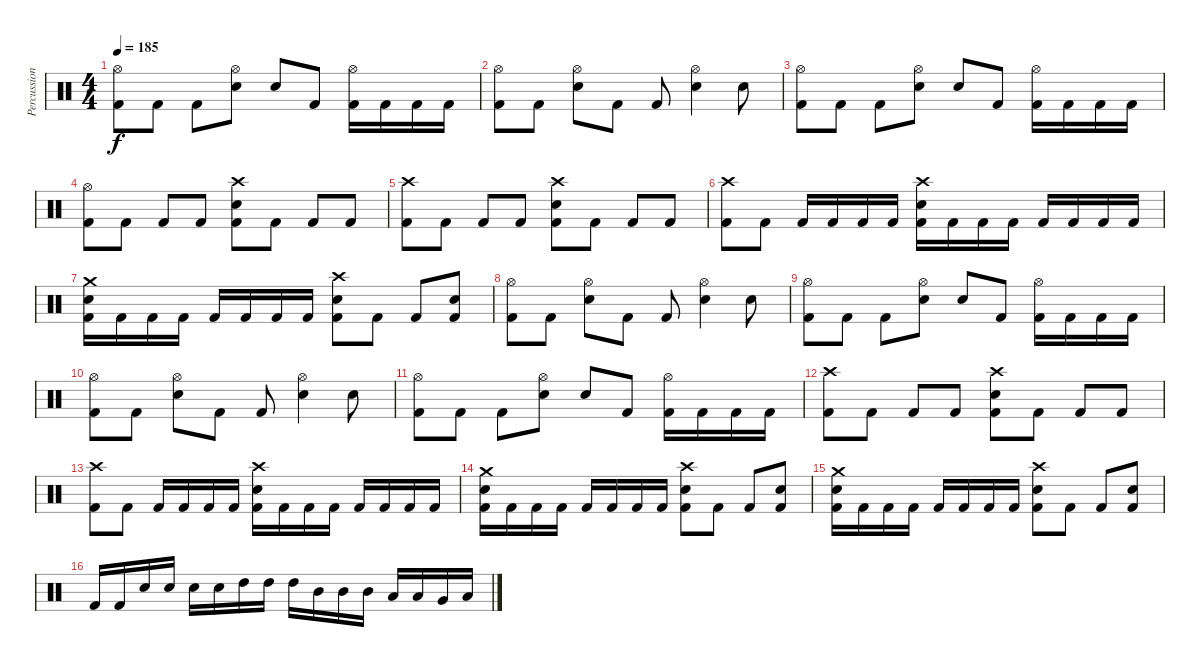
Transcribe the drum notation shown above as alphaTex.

\track ("Percussion" "Percussion") {instrument percussion}
\staff {score}
\articulation defaults
\ts (4 4)
\tempo 185
\clef neutral
\ks c
("Hi-Hat (open)" "Kick (hit) 2").8{dy f} "Kick (hit) 2".8 "Kick (hit) 2".8 ("Hi-Hat (open)" "Electric Snare (hit)").8 "Electric Snare (hit)".8 "Kick (hit) 2".8 ("Hi-Hat (open)" "Kick (hit) 2").16 "Kick (hit) 2".16 "Kick (hit) 2".16 "Kick (hit) 2".16 |
("Hi-Hat (open)" "Kick (hit) 2").8 "Kick (hit) 2".8 ("Hi-Hat (open)" "Electric Snare (hit)").8 "Kick (hit) 2".8 "Kick (hit) 2".8 ("Hi-Hat (open)" "Electric Snare (hit)").4 "Electric Snare (hit)".8 |
("Hi-Hat (open)" "Kick (hit) 2").8 "Kick (hit) 2".8 "Kick (hit) 2".8 ("Hi-Hat (open)" "Electric Snare (hit)").8 "Electric Snare (hit)".8 "Kick (hit) 2".8 ("Hi-Hat (open)" "Kick (hit) 2").16 "Kick (hit) 2".16 "Kick (hit) 2".16 "Kick (hit) 2".16 |
("Hi-Hat (open)" "Kick (hit) 2").8 "Kick (hit) 2".8 "Kick (hit) 2".8 "Kick (hit) 2".8 ("Crash high (hit)" "Electric Snare (hit)" "Kick (hit) 2").8 "Kick (hit) 2".8 "Kick (hit) 2".8 "Kick (hit) 2".8 |
("Crash high (hit)" "Kick (hit) 2").8 "Kick (hit) 2".8 "Kick (hit) 2".8 "Kick (hit) 2".8 ("Crash high (hit)" "Electric Snare (hit)" "Kick (hit) 2").8 "Kick (hit) 2".8 "Kick (hit) 2".8 "Kick (hit) 2".8 |
("Crash high (hit)" "Kick (hit) 2").8 "Kick (hit) 2".8 "Kick (hit) 2".16 "Kick (hit) 2".16 "Kick (hit) 2".16 "Kick (hit) 2".16 ("Crash high (hit)" "Electric Snare (hit)" "Kick (hit) 2").16 "Kick (hit) 2".16 "Kick (hit) 2".16 "Kick (hit) 2".16 "Kick (hit) 2".16 "Kick (hit) 2".16 "Kick (hit) 2".16 "Kick (hit) 2".16 |
("Crash medium (hit)" "Electric Snare (hit)" "Kick (hit) 2").16 "Kick (hit) 2".16 "Kick (hit) 2".16 "Kick (hit) 2".16 "Kick (hit) 2".16 "Kick (hit) 2".16 "Kick (hit) 2".16 "Kick (hit) 2".16 ("Crash high (hit)" "Electric Snare (hit)" "Kick (hit) 2").8 "Kick (hit) 2".8 "Kick (hit) 2".8 ("Electric Snare (hit)" "Kick (hit) 2").8 |
("Hi-Hat (open)" "Kick (hit) 2").8 "Kick (hit) 2".8 ("Hi-Hat (open)" "Electric Snare (hit)").8 "Kick (hit) 2".8 "Kick (hit) 2".8 ("Hi-Hat (open)" "Electric Snare (hit)").4 "Electric Snare (hit)".8 |
("Hi-Hat (open)" "Kick (hit) 2").8 "Kick (hit) 2".8 "Kick (hit) 2".8 ("Hi-Hat (open)" "Electric Snare (hit)").8 "Electric Snare (hit)".8 "Kick (hit) 2".8 ("Hi-Hat (open)" "Kick (hit) 2").16 "Kick (hit) 2".16 "Kick (hit) 2".16 "Kick (hit) 2".16 |
("Hi-Hat (open)" "Kick (hit) 2").8 "Kick (hit) 2".8 ("Hi-Hat (open)" "Electric Snare (hit)").8 "Kick (hit) 2".8 "Kick (hit) 2".8 ("Hi-Hat (open)" "Electric Snare (hit)").4 "Electric Snare (hit)".8 |
("Hi-Hat (open)" "Kick (hit) 2").8 "Kick (hit) 2".8 "Kick (hit) 2".8 ("Hi-Hat (open)" "Electric Snare (hit)").8 "Electric Snare (hit)".8 "Kick (hit) 2".8 ("Hi-Hat (open)" "Kick (hit) 2").16 "Kick (hit) 2".16 "Kick (hit) 2".16 "Kick (hit) 2".16 |
("Crash high (hit)" "Kick (hit) 2").8 "Kick (hit) 2".8 "Kick (hit) 2".8 "Kick (hit) 2".8 ("Crash high (hit)" "Electric Snare (hit)" "Kick (hit) 2").8 "Kick (hit) 2".8 "Kick (hit) 2".8 "Kick (hit) 2".8 |
("Crash high (hit)" "Kick (hit) 2").8 "Kick (hit) 2".8 "Kick (hit) 2".16 "Kick (hit) 2".16 "Kick (hit) 2".16 "Kick (hit) 2".16 ("Crash high (hit)" "Electric Snare (hit)" "Kick (hit) 2").16 "Kick (hit) 2".16 "Kick (hit) 2".16 "Kick (hit) 2".16 "Kick (hit) 2".16 "Kick (hit) 2".16 "Kick (hit) 2".16 "Kick (hit) 2".16 |
("Crash medium (hit)" "Electric Snare (hit)" "Kick (hit) 2").16 "Kick (hit) 2".16 "Kick (hit) 2".16 "Kick (hit) 2".16 "Kick (hit) 2".16 "Kick (hit) 2".16 "Kick (hit) 2".16 "Kick (hit) 2".16 ("Crash high (hit)" "Electric Snare (hit)" "Kick (hit) 2").8 "Kick (hit) 2".8 "Kick (hit) 2".8 ("Electric Snare (hit)" "Kick (hit) 2").8 |
("Crash medium (hit)" "Electric Snare (hit)" "Kick (hit) 2").16 "Kick (hit) 2".16 "Kick (hit) 2".16 "Kick (hit) 2".16 "Kick (hit) 2".16 "Kick (hit) 2".16 "Kick (hit) 2".16 "Kick (hit) 2".16 ("Crash high (hit)" "Electric Snare (hit)" "Kick (hit) 2").8 "Kick (hit) 2".8 "Kick (hit) 2".8 ("Electric Snare (hit)" "Kick (hit) 2").8 |
"Kick (hit) 2".16 "Kick (hit) 2".16 "Electric Snare (hit)".16 "Electric Snare (hit)".16 "Electric Snare (hit)".16 "Electric Snare (hit)".16 "High Tom (hit)".16 "High Tom (hit)".16 "High Tom (hit)".16 "Mid Tom (hit)".16 "Mid Tom (hit)".16 "Mid Tom (hit)".16 "Low Tom (hit)".16 "Low Tom (hit)".16 "Very Low Tom (hit)".16 "Low Floor Tom (hit)".16
